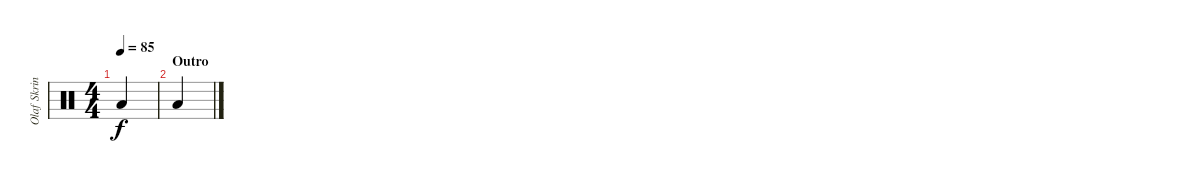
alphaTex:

\track ("Olaf Skrinde (Drums)" "Olaf Skrin") {instrument percussion}
\staff {score}
\articulation defaults
\ts (4 4)
\tempo 85
\clef neutral
\ks c "Low Floor Tom (hit)".4{dy f}
|
\section ("" "Outro")
"Low Floor Tom (hit)".4
